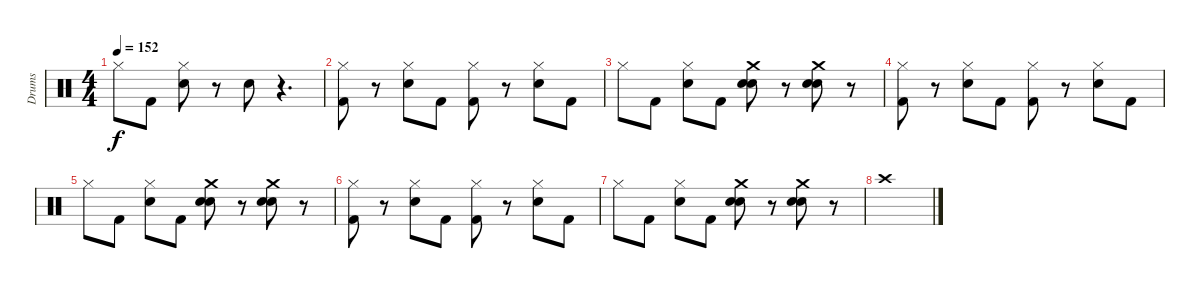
\track ("Drums" "Drums") {instrument percussion}
\staff {score}
\articulation defaults
\ts (4 4)
\tempo 152
\clef neutral
\ks c "Hi-Hat (closed)".8{dy f} "Kick (hit) 2".8
("Electric Snare (hit)" "Hi-Hat (closed)").8 r.8 "Electric Snare (hit)".8 r.4{d} |
("Kick (hit) 2" "Hi-Hat (closed)").8 r.8 ("Electric Snare (hit)" "Hi-Hat (closed)").8 "Kick (hit) 2".8 ("Kick (hit) 2" "Hi-Hat (closed)").8 r.8 ("Electric Snare (hit)" "Hi-Hat (closed)").8 "Kick (hit) 2".8 |
"Hi-Hat (closed)".8 "Kick (hit) 2".8 ("Electric Snare (hit)" "Hi-Hat (closed)").8 "Kick (hit) 2".8 ("Electric Snare (hit)" "Electric Snare (hit)" "Crash medium (hit)").8 r.8 ("Electric Snare (hit)" "Electric Snare (hit)" "Crash medium (hit)").8 r.8 |
("Kick (hit) 2" "Hi-Hat (closed)").8 r.8 ("Electric Snare (hit)" "Hi-Hat (closed)").8 "Kick (hit) 2".8 ("Kick (hit) 2" "Hi-Hat (closed)").8 r.8 ("Electric Snare (hit)" "Hi-Hat (closed)").8 "Kick (hit) 2".8 |
"Hi-Hat (closed)".8 "Kick (hit) 2".8 ("Electric Snare (hit)" "Hi-Hat (closed)").8 "Kick (hit) 2".8 ("Electric Snare (hit)" "Electric Snare (hit)" "Crash medium (hit)").8 r.8 ("Electric Snare (hit)" "Electric Snare (hit)" "Crash medium (hit)").8 r.8 |
("Kick (hit) 2" "Hi-Hat (closed)").8 r.8 ("Electric Snare (hit)" "Hi-Hat (closed)").8 "Kick (hit) 2".8 ("Kick (hit) 2" "Hi-Hat (closed)").8 r.8 ("Electric Snare (hit)" "Hi-Hat (closed)").8 "Kick (hit) 2".8 |
"Hi-Hat (closed)".8 "Kick (hit) 2".8 ("Electric Snare (hit)" "Hi-Hat (closed)").8 "Kick (hit) 2".8 ("Electric Snare (hit)" "Electric Snare (hit)" "Crash medium (hit)").8 r.8 ("Electric Snare (hit)" "Electric Snare (hit)" "Crash medium (hit)").8 r.8 |
"Crash high (hit)".1
